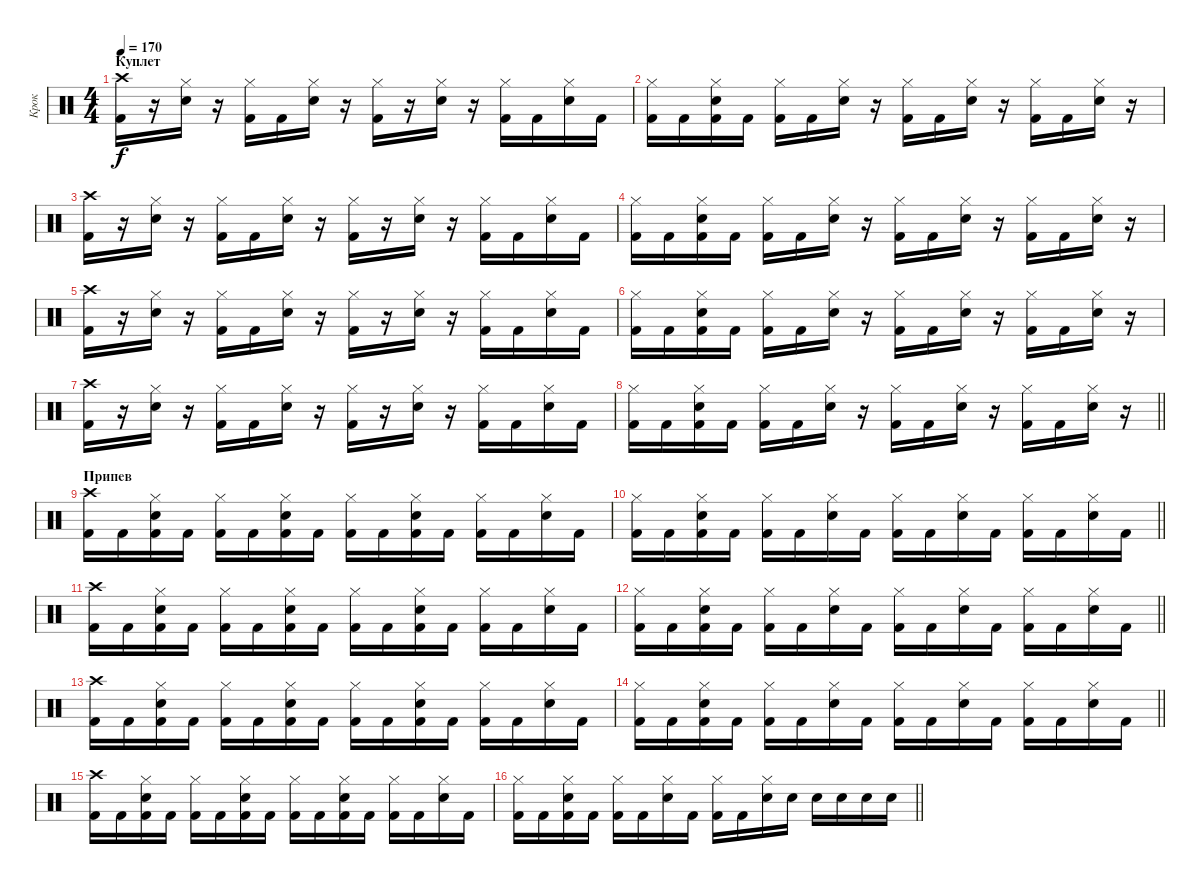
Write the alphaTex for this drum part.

\track ("Крок" "Крок") {instrument percussion}
\staff {score}
\articulation defaults
\ts (4 4)
\section ("" "Куплет")
\tempo 170
\clef neutral
\ks aminor
("Kick (hit) 2" "Crash high (hit)").16{dy f} r.16 ("Electric Snare (hit)" "Hi-Hat (closed)").16 r.16 ("Kick (hit) 2" "Hi-Hat (closed)").16 "Kick (hit) 2".16 ("Electric Snare (hit)" "Hi-Hat (closed)").16 r.16 ("Kick (hit) 2" "Hi-Hat (closed)").16 r.16 ("Electric Snare (hit)" "Hi-Hat (closed)").16 r.16 ("Kick (hit) 2" "Hi-Hat (closed)").16 "Kick (hit) 2".16 ("Electric Snare (hit)" "Hi-Hat (closed)").16 "Kick (hit) 2".16 |
("Kick (hit) 2" "Hi-Hat (closed)").16 "Kick (hit) 2".16 ("Kick (hit) 2" "Electric Snare (hit)" "Hi-Hat (closed)").16 "Kick (hit) 2".16 ("Kick (hit) 2" "Hi-Hat (closed)").16 "Kick (hit) 2".16 ("Electric Snare (hit)" "Hi-Hat (closed)").16 r.16 ("Kick (hit) 2" "Hi-Hat (closed)").16 "Kick (hit) 2".16 ("Electric Snare (hit)" "Hi-Hat (closed)").16 r.16 ("Kick (hit) 2" "Hi-Hat (closed)").16 "Kick (hit) 2".16 ("Electric Snare (hit)" "Hi-Hat (closed)").16 r.16 |
("Kick (hit) 2" "Crash high (hit)").16 r.16 ("Electric Snare (hit)" "Hi-Hat (closed)").16 r.16 ("Kick (hit) 2" "Hi-Hat (closed)").16 "Kick (hit) 2".16 ("Electric Snare (hit)" "Hi-Hat (closed)").16 r.16 ("Kick (hit) 2" "Hi-Hat (closed)").16 r.16 ("Electric Snare (hit)" "Hi-Hat (closed)").16 r.16 ("Kick (hit) 2" "Hi-Hat (closed)").16 "Kick (hit) 2".16 ("Electric Snare (hit)" "Hi-Hat (closed)").16 "Kick (hit) 2".16 |
("Kick (hit) 2" "Hi-Hat (closed)").16 "Kick (hit) 2".16 ("Kick (hit) 2" "Electric Snare (hit)" "Hi-Hat (closed)").16 "Kick (hit) 2".16 ("Kick (hit) 2" "Hi-Hat (closed)").16 "Kick (hit) 2".16 ("Electric Snare (hit)" "Hi-Hat (closed)").16 r.16 ("Kick (hit) 2" "Hi-Hat (closed)").16 "Kick (hit) 2".16 ("Electric Snare (hit)" "Hi-Hat (closed)").16 r.16 ("Kick (hit) 2" "Hi-Hat (closed)").16 "Kick (hit) 2".16 ("Electric Snare (hit)" "Hi-Hat (closed)").16 r.16 |
("Kick (hit) 2" "Crash high (hit)").16 r.16 ("Electric Snare (hit)" "Hi-Hat (closed)").16 r.16 ("Kick (hit) 2" "Hi-Hat (closed)").16 "Kick (hit) 2".16 ("Electric Snare (hit)" "Hi-Hat (closed)").16 r.16 ("Kick (hit) 2" "Hi-Hat (closed)").16 r.16 ("Electric Snare (hit)" "Hi-Hat (closed)").16 r.16 ("Kick (hit) 2" "Hi-Hat (closed)").16 "Kick (hit) 2".16 ("Electric Snare (hit)" "Hi-Hat (closed)").16 "Kick (hit) 2".16 |
("Kick (hit) 2" "Hi-Hat (closed)").16 "Kick (hit) 2".16 ("Kick (hit) 2" "Electric Snare (hit)" "Hi-Hat (closed)").16 "Kick (hit) 2".16 ("Kick (hit) 2" "Hi-Hat (closed)").16 "Kick (hit) 2".16 ("Electric Snare (hit)" "Hi-Hat (closed)").16 r.16 ("Kick (hit) 2" "Hi-Hat (closed)").16 "Kick (hit) 2".16 ("Electric Snare (hit)" "Hi-Hat (closed)").16 r.16 ("Kick (hit) 2" "Hi-Hat (closed)").16 "Kick (hit) 2".16 ("Electric Snare (hit)" "Hi-Hat (closed)").16 r.16 |
("Kick (hit) 2" "Crash high (hit)").16 r.16 ("Electric Snare (hit)" "Hi-Hat (closed)").16 r.16 ("Kick (hit) 2" "Hi-Hat (closed)").16 "Kick (hit) 2".16 ("Electric Snare (hit)" "Hi-Hat (closed)").16 r.16 ("Kick (hit) 2" "Hi-Hat (closed)").16 r.16 ("Electric Snare (hit)" "Hi-Hat (closed)").16 r.16 ("Kick (hit) 2" "Hi-Hat (closed)").16 "Kick (hit) 2".16 ("Electric Snare (hit)" "Hi-Hat (closed)").16 "Kick (hit) 2".16 |
\barLineRight lightlight
("Kick (hit) 2" "Hi-Hat (closed)").16 "Kick (hit) 2".16 ("Kick (hit) 2" "Electric Snare (hit)" "Hi-Hat (closed)").16 "Kick (hit) 2".16 ("Kick (hit) 2" "Hi-Hat (closed)").16 "Kick (hit) 2".16 ("Electric Snare (hit)" "Hi-Hat (closed)").16 r.16 ("Kick (hit) 2" "Hi-Hat (closed)").16 "Kick (hit) 2".16 ("Electric Snare (hit)" "Hi-Hat (closed)").16 r.16 ("Kick (hit) 2" "Hi-Hat (closed)").16 "Kick (hit) 2".16 ("Electric Snare (hit)" "Hi-Hat (closed)").16 r.16 |
\section ("" "Припев")
("Kick (hit) 2" "Crash high (hit)").16 "Kick (hit) 2".16 ("Kick (hit) 2" "Electric Snare (hit)" "Hi-Hat (closed)").16 "Kick (hit) 2".16 ("Kick (hit) 2" "Hi-Hat (closed)").16 "Kick (hit) 2".16 ("Kick (hit) 2" "Electric Snare (hit)" "Hi-Hat (closed)").16 "Kick (hit) 2".16 ("Kick (hit) 2" "Hi-Hat (closed)").16 "Kick (hit) 2".16 ("Kick (hit) 2" "Electric Snare (hit)" "Hi-Hat (closed)").16 "Kick (hit) 2".16 ("Kick (hit) 2" "Hi-Hat (closed)").16 "Kick (hit) 2".16 ("Electric Snare (hit)" "Hi-Hat (closed)").16 "Kick (hit) 2".16 |
\barLineRight lightlight
("Kick (hit) 2" "Hi-Hat (closed)").16 "Kick (hit) 2".16 ("Kick (hit) 2" "Electric Snare (hit)" "Hi-Hat (closed)").16 "Kick (hit) 2".16 ("Kick (hit) 2" "Hi-Hat (closed)").16 "Kick (hit) 2".16 ("Electric Snare (hit)" "Hi-Hat (closed)").16 "Kick (hit) 2".16 ("Kick (hit) 2" "Hi-Hat (closed)").16 "Kick (hit) 2".16 ("Electric Snare (hit)" "Hi-Hat (closed)").16 "Kick (hit) 2".16 ("Kick (hit) 2" "Hi-Hat (closed)").16 "Kick (hit) 2".16 ("Electric Snare (hit)" "Hi-Hat (closed)").16 "Kick (hit) 2".16 |
("Kick (hit) 2" "Crash high (hit)").16 "Kick (hit) 2".16 ("Kick (hit) 2" "Electric Snare (hit)" "Hi-Hat (closed)").16 "Kick (hit) 2".16 ("Kick (hit) 2" "Hi-Hat (closed)").16 "Kick (hit) 2".16 ("Kick (hit) 2" "Electric Snare (hit)" "Hi-Hat (closed)").16 "Kick (hit) 2".16 ("Kick (hit) 2" "Hi-Hat (closed)").16 "Kick (hit) 2".16 ("Kick (hit) 2" "Electric Snare (hit)" "Hi-Hat (closed)").16 "Kick (hit) 2".16 ("Kick (hit) 2" "Hi-Hat (closed)").16 "Kick (hit) 2".16 ("Electric Snare (hit)" "Hi-Hat (closed)").16 "Kick (hit) 2".16 |
\barLineRight lightlight
("Kick (hit) 2" "Hi-Hat (closed)").16 "Kick (hit) 2".16 ("Kick (hit) 2" "Electric Snare (hit)" "Hi-Hat (closed)").16 "Kick (hit) 2".16 ("Kick (hit) 2" "Hi-Hat (closed)").16 "Kick (hit) 2".16 ("Electric Snare (hit)" "Hi-Hat (closed)").16 "Kick (hit) 2".16 ("Kick (hit) 2" "Hi-Hat (closed)").16 "Kick (hit) 2".16 ("Electric Snare (hit)" "Hi-Hat (closed)").16 "Kick (hit) 2".16 ("Kick (hit) 2" "Hi-Hat (closed)").16 "Kick (hit) 2".16 ("Electric Snare (hit)" "Hi-Hat (closed)").16 "Kick (hit) 2".16 |
("Kick (hit) 2" "Crash high (hit)").16 "Kick (hit) 2".16 ("Kick (hit) 2" "Electric Snare (hit)" "Hi-Hat (closed)").16 "Kick (hit) 2".16 ("Kick (hit) 2" "Hi-Hat (closed)").16 "Kick (hit) 2".16 ("Kick (hit) 2" "Electric Snare (hit)" "Hi-Hat (closed)").16 "Kick (hit) 2".16 ("Kick (hit) 2" "Hi-Hat (closed)").16 "Kick (hit) 2".16 ("Kick (hit) 2" "Electric Snare (hit)" "Hi-Hat (closed)").16 "Kick (hit) 2".16 ("Kick (hit) 2" "Hi-Hat (closed)").16 "Kick (hit) 2".16 ("Electric Snare (hit)" "Hi-Hat (closed)").16 "Kick (hit) 2".16 |
\barLineRight lightlight
("Kick (hit) 2" "Hi-Hat (closed)").16 "Kick (hit) 2".16 ("Kick (hit) 2" "Electric Snare (hit)" "Hi-Hat (closed)").16 "Kick (hit) 2".16 ("Kick (hit) 2" "Hi-Hat (closed)").16 "Kick (hit) 2".16 ("Electric Snare (hit)" "Hi-Hat (closed)").16 "Kick (hit) 2".16 ("Kick (hit) 2" "Hi-Hat (closed)").16 "Kick (hit) 2".16 ("Electric Snare (hit)" "Hi-Hat (closed)").16 "Kick (hit) 2".16 ("Kick (hit) 2" "Hi-Hat (closed)").16 "Kick (hit) 2".16 ("Electric Snare (hit)" "Hi-Hat (closed)").16 "Kick (hit) 2".16 |
("Kick (hit) 2" "Crash high (hit)").16 "Kick (hit) 2".16 ("Kick (hit) 2" "Electric Snare (hit)" "Hi-Hat (closed)").16 "Kick (hit) 2".16 ("Kick (hit) 2" "Hi-Hat (closed)").16 "Kick (hit) 2".16 ("Kick (hit) 2" "Electric Snare (hit)" "Hi-Hat (closed)").16 "Kick (hit) 2".16 ("Kick (hit) 2" "Hi-Hat (closed)").16 "Kick (hit) 2".16 ("Kick (hit) 2" "Electric Snare (hit)" "Hi-Hat (closed)").16 "Kick (hit) 2".16 ("Kick (hit) 2" "Hi-Hat (closed)").16 "Kick (hit) 2".16 ("Electric Snare (hit)" "Hi-Hat (closed)").16 "Kick (hit) 2".16 |
\barLineRight lightlight
("Kick (hit) 2" "Hi-Hat (closed)").16 "Kick (hit) 2".16 ("Kick (hit) 2" "Electric Snare (hit)" "Hi-Hat (closed)").16 "Kick (hit) 2".16 ("Kick (hit) 2" "Hi-Hat (closed)").16 "Kick (hit) 2".16 ("Electric Snare (hit)" "Hi-Hat (closed)").16 "Kick (hit) 2".16 ("Kick (hit) 2" "Hi-Hat (closed)").16 "Kick (hit) 2".16 ("Electric Snare (hit)" "Hi-Hat (closed)").16 "Electric Snare (hit)".16 "Electric Snare (hit)".16 "Electric Snare (hit)".16 "Electric Snare (hit)".16 "Electric Snare (hit)".16
